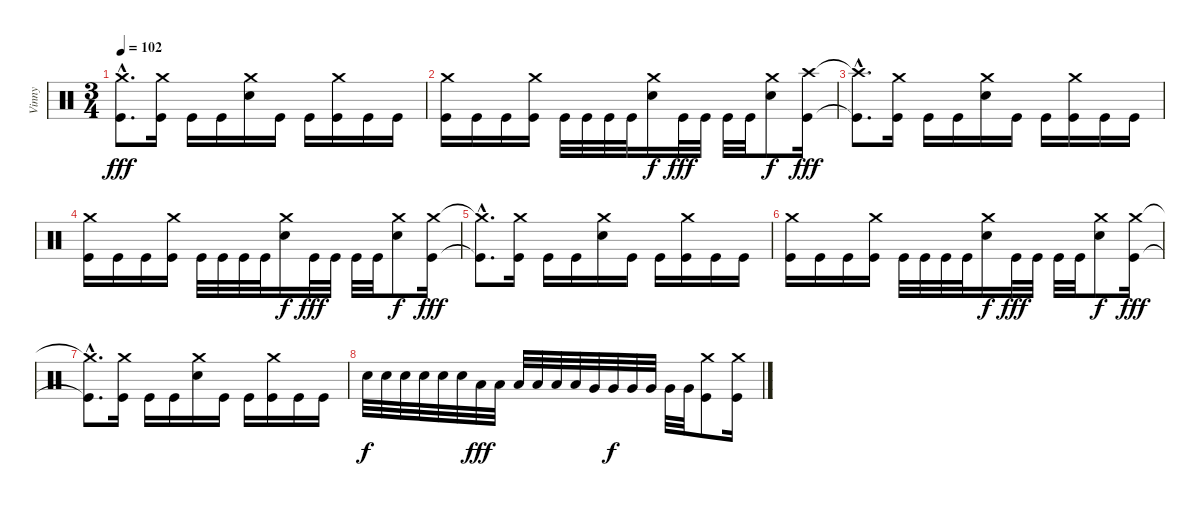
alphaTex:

\track ("Vinny" "Vinny") {instrument percussion}
\staff {score}
\articulation defaults
\ts (3 4)
\tempo 102
\clef neutral
\ks c
("Crash medium (hit)"{hac} "Kick (hit)"{hac}).8{d dy fff} ("Crash medium (hit)" "Kick (hit)").16 "Kick (hit)".16 "Kick (hit)".16 ("Crash medium (hit)" "Electric Snare (hit)").16 "Kick (hit)".16 "Kick (hit)".16 ("Crash medium (hit)" "Kick (hit)").16 "Kick (hit)".16 "Kick (hit)".16 |
("Crash medium (hit)" "Kick (hit)").16 "Kick (hit)".16 "Kick (hit)".16 ("Crash medium (hit)" "Kick (hit)").16 "Kick (hit)".32 "Kick (hit)".32 "Kick (hit)".32 "Kick (hit)".32 ("Crash medium (hit)" "Electric Snare (hit)").16{dy f} "Kick (hit)".32{dy fff} "Kick (hit)".32 "Kick (hit)".32 "Kick (hit)".32 ("Crash medium (hit)" "Electric Snare (hit)").8{dy f} ("Crash high (hit)" "Kick (hit)").16{dy fff} |
("Crash high (hit)"{hac t} "Kick (hit)"{hac t}).8{d} ("Crash medium (hit)" "Kick (hit)").16 "Kick (hit)".16 "Kick (hit)".16 ("Crash medium (hit)" "Electric Snare (hit)").16 "Kick (hit)".16 "Kick (hit)".16 ("Crash medium (hit)" "Kick (hit)").16 "Kick (hit)".16 "Kick (hit)".16 |
("Crash medium (hit)" "Kick (hit)").16 "Kick (hit)".16 "Kick (hit)".16 ("Crash medium (hit)" "Kick (hit)").16 "Kick (hit)".32 "Kick (hit)".32 "Kick (hit)".32 "Kick (hit)".32 ("Crash medium (hit)" "Electric Snare (hit)").16{dy f} "Kick (hit)".32{dy fff} "Kick (hit)".32 "Kick (hit)".32 "Kick (hit)".32 ("Crash medium (hit)" "Electric Snare (hit)").8{dy f} ("Crash medium (hit)" "Kick (hit)").16{dy fff} |
("Crash medium (hit)"{hac t} "Kick (hit)"{hac t}).8{d} ("Crash medium (hit)" "Kick (hit)").16 "Kick (hit)".16 "Kick (hit)".16 ("Crash medium (hit)" "Electric Snare (hit)").16 "Kick (hit)".16 "Kick (hit)".16 ("Crash medium (hit)" "Kick (hit)").16 "Kick (hit)".16 "Kick (hit)".16 |
("Crash medium (hit)" "Kick (hit)").16 "Kick (hit)".16 "Kick (hit)".16 ("Crash medium (hit)" "Kick (hit)").16 "Kick (hit)".32 "Kick (hit)".32 "Kick (hit)".32 "Kick (hit)".32 ("Crash medium (hit)" "Electric Snare (hit)").16{dy f} "Kick (hit)".32{dy fff} "Kick (hit)".32 "Kick (hit)".32 "Kick (hit)".32 ("Crash medium (hit)" "Electric Snare (hit)").8{dy f} ("Crash medium (hit)" "Kick (hit)").16{dy fff} |
("Crash medium (hit)"{hac t} "Kick (hit)"{hac t}).8{d} ("Crash medium (hit)" "Kick (hit)").16 "Kick (hit)".16 "Kick (hit)".16 ("Crash medium (hit)" "Electric Snare (hit)").16 "Kick (hit)".16 "Kick (hit)".16 ("Crash medium (hit)" "Kick (hit)").16 "Kick (hit)".16 "Kick (hit)".16 |
"Electric Snare (hit)".32{dy f} "Electric Snare (hit)".32 "Electric Snare (hit)".32 "Electric Snare (hit)".32 "Electric Snare (hit)".32 "Electric Snare (hit)".32 "Low Tom (hit)".32{dy fff} "Low Tom (hit)".32 "Low Tom (hit)".32 "Low Tom (hit)".32 "Low Tom (hit)".32 "Low Tom (hit)".32 "Very Low Tom (hit)".32 "Very Low Tom (hit)".32{dy f} "Very Low Tom (hit)".32 "Very Low Tom (hit)".32 "Very Low Tom (hit)".32 "Very Low Tom (hit)".32 ("Crash medium (hit)" "Kick (hit)").8 ("Crash medium (hit)" "Kick (hit)").16
